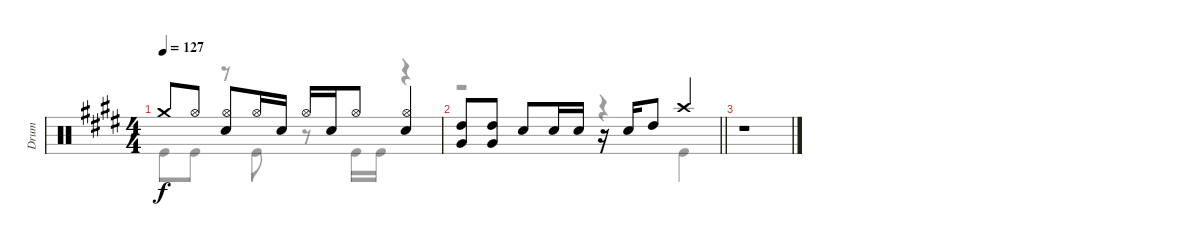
\track ("Drum" "Drum") {instrument percussion}
\staff {score}
\articulation defaults
\voice
\ts (4 4)
\tempo 127
\clef neutral
\ks e "Crash medium (hit)".8{dy f} "Hi-Hat (open)".8
("Hi-Hat (open)" "Snare (hit) 2").8 "Hi-Hat (open)".16 "Snare (hit) 2".16 "Hi-Hat (open)".16 "Snare (hit) 2".16 "Hi-Hat (open)".8 ("Snare (hit) 2" "Hi-Hat (open)").4 |
\barLineRight lightlight
("High Tom (hit)" "Very Low Tom (hit)").8 ("High Tom (hit)" "Very Low Tom (hit)").8 "Snare (hit) 2".8 "Snare (hit) 2".16 "Snare (hit) 2".16 r.16 "Snare (hit) 2".16 "High Tom (hit)".8 "Crash high (hit)".4 |
r.1
\voice
\clef neutral
\ottava regular
\simile none
\ks e "Kick (hit)".8{dy f} "Kick (hit)".8
r.8 "Kick (hit)".8 r.8 "Kick (hit)".16 "Kick (hit)".16 r.4 |
\barLineRight lightlight
r.2 r.4 "Kick (hit)".4 |
